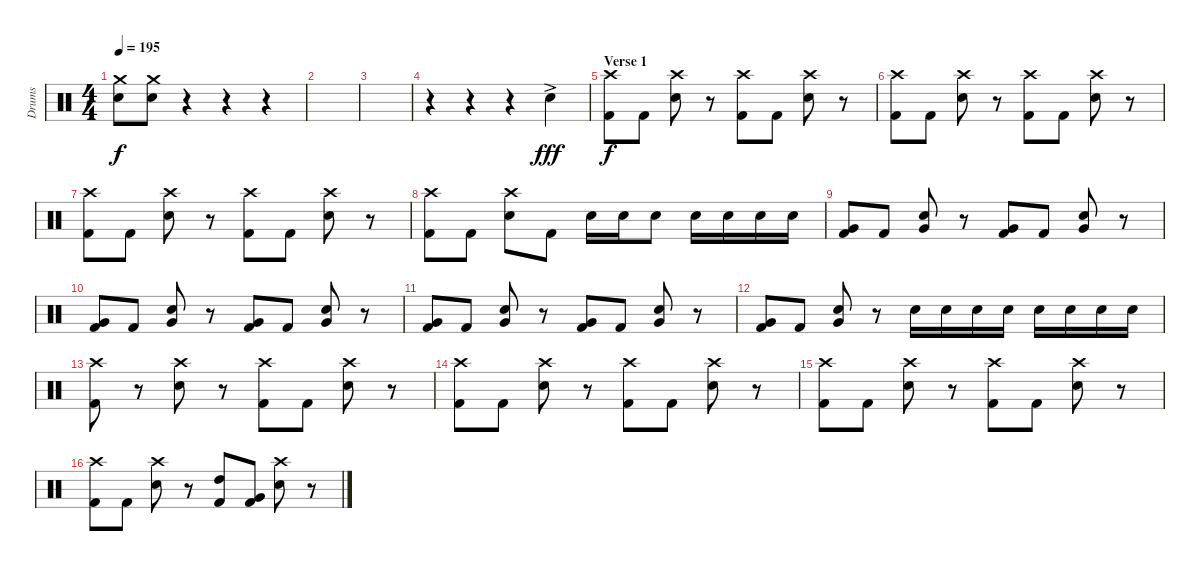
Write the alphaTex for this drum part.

\track ("Drums" "Drums") {instrument percussion}
\staff {score}
\articulation defaults
\ts (4 4)
\tempo 195
\clef neutral
\ks c
("Crash medium (hit)" "Electric Snare (hit)").8{dy f} ("Crash medium (hit)" "Electric Snare (hit)").8 r.4 r.4 r.4 |
|
|
r.4 r.4 r.4 "Electric Snare (hit)"{ac}.4{dy fff} |
\section ("" "Verse 1")
("Crash high (hit)" "Kick (hit) 2").8{dy f} "Kick (hit) 2".8 ("Crash high (hit)" "Electric Snare (hit)").8 r.8 ("Crash high (hit)" "Kick (hit) 2").8 "Kick (hit) 2".8 ("Crash high (hit)" "Electric Snare (hit)").8 r.8 |
("Crash high (hit)" "Kick (hit) 2").8 "Kick (hit) 2".8 ("Crash high (hit)" "Electric Snare (hit)").8 r.8 ("Crash high (hit)" "Kick (hit) 2").8 "Kick (hit) 2".8 ("Crash high (hit)" "Electric Snare (hit)").8 r.8 |
("Crash high (hit)" "Kick (hit) 2").8 "Kick (hit) 2".8 ("Crash high (hit)" "Electric Snare (hit)").8 r.8 ("Crash high (hit)" "Kick (hit) 2").8 "Kick (hit) 2".8 ("Crash high (hit)" "Electric Snare (hit)").8 r.8 |
("Crash high (hit)" "Kick (hit) 2").8 "Kick (hit) 2".8 ("Crash high (hit)" "Electric Snare (hit)").8 "Kick (hit) 2".8 "Electric Snare (hit)".16 "Electric Snare (hit)".16 "Electric Snare (hit)".8 "Electric Snare (hit)".16 "Electric Snare (hit)".16 "Electric Snare (hit)".16 "Electric Snare (hit)".16 |
("Very Low Tom (hit)" "Kick (hit) 2").8 "Kick (hit) 2".8 ("Electric Snare (hit)" "Very Low Tom (hit)").8 r.8 ("Very Low Tom (hit)" "Kick (hit) 2").8 "Kick (hit) 2".8 ("Electric Snare (hit)" "Very Low Tom (hit)").8 r.8 |
("Very Low Tom (hit)" "Kick (hit) 2").8 "Kick (hit) 2".8 ("Electric Snare (hit)" "Very Low Tom (hit)").8 r.8 ("Very Low Tom (hit)" "Kick (hit) 2").8 "Kick (hit) 2".8 ("Electric Snare (hit)" "Very Low Tom (hit)").8 r.8 |
("Very Low Tom (hit)" "Kick (hit) 2").8 "Kick (hit) 2".8 ("Electric Snare (hit)" "Very Low Tom (hit)").8 r.8 ("Very Low Tom (hit)" "Kick (hit) 2").8 "Kick (hit) 2".8 ("Electric Snare (hit)" "Very Low Tom (hit)").8 r.8 |
("Very Low Tom (hit)" "Kick (hit) 2").8 "Kick (hit) 2".8 ("Electric Snare (hit)" "Very Low Tom (hit)").8 r.8 "Electric Snare (hit)".16 "Electric Snare (hit)".16 "Electric Snare (hit)".16 "Electric Snare (hit)".16 "Electric Snare (hit)".16 "Electric Snare (hit)".16 "Electric Snare (hit)".16 "Electric Snare (hit)".16 |
("Crash high (hit)" "Kick (hit) 2").8 r.8 ("Crash high (hit)" "Electric Snare (hit)").8 r.8 ("Crash high (hit)" "Kick (hit) 2").8 "Kick (hit) 2".8 ("Crash high (hit)" "Electric Snare (hit)").8 r.8 |
("Crash high (hit)" "Kick (hit) 2").8 "Kick (hit) 2".8 ("Crash high (hit)" "Electric Snare (hit)").8 r.8 ("Crash high (hit)" "Kick (hit) 2").8 "Kick (hit) 2".8 ("Crash high (hit)" "Electric Snare (hit)").8 r.8 |
("Crash high (hit)" "Kick (hit) 2").8 "Kick (hit) 2".8 ("Crash high (hit)" "Electric Snare (hit)").8 r.8 ("Crash high (hit)" "Kick (hit) 2").8 "Kick (hit) 2".8 ("Crash high (hit)" "Electric Snare (hit)").8 r.8 |
("Crash high (hit)" "Kick (hit) 2").8 "Kick (hit) 2".8 ("Crash high (hit)" "Electric Snare (hit)").8 r.8 ("High Tom (hit)" "Kick (hit) 2").8 ("Very Low Tom (hit)" "Kick (hit) 2").8 ("Crash high (hit)" "Electric Snare (hit)").8 r.8
